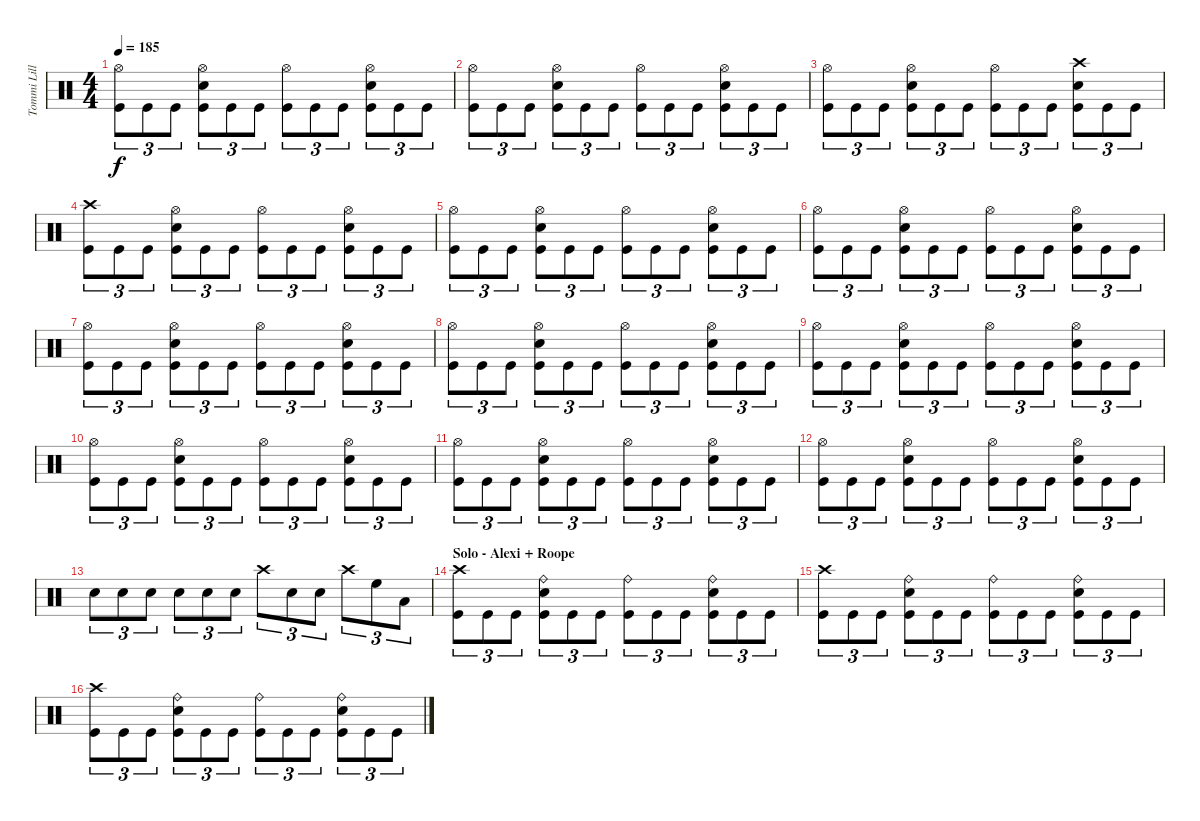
\track ("Tommi Lillman" "Tommi Lill") {instrument percussion}
\staff {score}
\articulation defaults
\ts (4 4)
\tempo 185
\clef neutral
\ks c
("Hi-Hat (open)" "Kick (hit)").8{tu (3 2) dy f} "Kick (hit)".8{tu (3 2)} "Kick (hit)".8{tu (3 2)} ("Hi-Hat (open)" "Snare (hit) 2" "Kick (hit)").8{tu (3 2)} "Kick (hit)".8{tu (3 2)} "Kick (hit)".8{tu (3 2)} ("Hi-Hat (open)" "Kick (hit)").8{tu (3 2)} "Kick (hit)".8{tu (3 2)} "Kick (hit)".8{tu (3 2)} ("Hi-Hat (open)" "Snare (hit) 2" "Kick (hit)").8{tu (3 2)} "Kick (hit)".8{tu (3 2)} "Kick (hit)".8{tu (3 2)} |
("Hi-Hat (open)" "Kick (hit)").8{tu (3 2)} "Kick (hit)".8{tu (3 2)} "Kick (hit)".8{tu (3 2)} ("Hi-Hat (open)" "Snare (hit) 2" "Kick (hit)").8{tu (3 2)} "Kick (hit)".8{tu (3 2)} "Kick (hit)".8{tu (3 2)} ("Hi-Hat (open)" "Kick (hit)").8{tu (3 2)} "Kick (hit)".8{tu (3 2)} "Kick (hit)".8{tu (3 2)} ("Hi-Hat (open)" "Snare (hit) 2" "Kick (hit)").8{tu (3 2)} "Kick (hit)".8{tu (3 2)} "Kick (hit)".8{tu (3 2)} |
("Hi-Hat (open)" "Kick (hit)").8{tu (3 2)} "Kick (hit)".8{tu (3 2)} "Kick (hit)".8{tu (3 2)} ("Hi-Hat (open)" "Snare (hit) 2" "Kick (hit)").8{tu (3 2)} "Kick (hit)".8{tu (3 2)} "Kick (hit)".8{tu (3 2)} ("Hi-Hat (open)" "Kick (hit)").8{tu (3 2)} "Kick (hit)".8{tu (3 2)} "Kick (hit)".8{tu (3 2)} ("Crash high (hit)" "Snare (hit) 2" "Kick (hit)").8{tu (3 2)} "Kick (hit)".8{tu (3 2)} "Kick (hit)".8{tu (3 2)} |
("Crash high (hit)" "Kick (hit)").8{tu (3 2)} "Kick (hit)".8{tu (3 2)} "Kick (hit)".8{tu (3 2)} ("Hi-Hat (open)" "Snare (hit) 2" "Kick (hit)").8{tu (3 2)} "Kick (hit)".8{tu (3 2)} "Kick (hit)".8{tu (3 2)} ("Hi-Hat (open)" "Kick (hit)").8{tu (3 2)} "Kick (hit)".8{tu (3 2)} "Kick (hit)".8{tu (3 2)} ("Hi-Hat (open)" "Snare (hit) 2" "Kick (hit)").8{tu (3 2)} "Kick (hit)".8{tu (3 2)} "Kick (hit)".8{tu (3 2)} |
("Hi-Hat (open)" "Kick (hit)").8{tu (3 2)} "Kick (hit)".8{tu (3 2)} "Kick (hit)".8{tu (3 2)} ("Hi-Hat (open)" "Snare (hit) 2" "Kick (hit)").8{tu (3 2)} "Kick (hit)".8{tu (3 2)} "Kick (hit)".8{tu (3 2)} ("Hi-Hat (open)" "Kick (hit)").8{tu (3 2)} "Kick (hit)".8{tu (3 2)} "Kick (hit)".8{tu (3 2)} ("Hi-Hat (open)" "Snare (hit) 2" "Kick (hit)").8{tu (3 2)} "Kick (hit)".8{tu (3 2)} "Kick (hit)".8{tu (3 2)} |
("Hi-Hat (open)" "Kick (hit)").8{tu (3 2)} "Kick (hit)".8{tu (3 2)} "Kick (hit)".8{tu (3 2)} ("Hi-Hat (open)" "Snare (hit) 2" "Kick (hit)").8{tu (3 2)} "Kick (hit)".8{tu (3 2)} "Kick (hit)".8{tu (3 2)} ("Hi-Hat (open)" "Kick (hit)").8{tu (3 2)} "Kick (hit)".8{tu (3 2)} "Kick (hit)".8{tu (3 2)} ("Hi-Hat (open)" "Snare (hit) 2" "Kick (hit)").8{tu (3 2)} "Kick (hit)".8{tu (3 2)} "Kick (hit)".8{tu (3 2)} |
("Hi-Hat (open)" "Kick (hit)").8{tu (3 2)} "Kick (hit)".8{tu (3 2)} "Kick (hit)".8{tu (3 2)} ("Hi-Hat (open)" "Snare (hit) 2" "Kick (hit)").8{tu (3 2)} "Kick (hit)".8{tu (3 2)} "Kick (hit)".8{tu (3 2)} ("Hi-Hat (open)" "Kick (hit)").8{tu (3 2)} "Kick (hit)".8{tu (3 2)} "Kick (hit)".8{tu (3 2)} ("Hi-Hat (open)" "Snare (hit) 2" "Kick (hit)").8{tu (3 2)} "Kick (hit)".8{tu (3 2)} "Kick (hit)".8{tu (3 2)} |
("Hi-Hat (open)" "Kick (hit)").8{tu (3 2)} "Kick (hit)".8{tu (3 2)} "Kick (hit)".8{tu (3 2)} ("Hi-Hat (open)" "Snare (hit) 2" "Kick (hit)").8{tu (3 2)} "Kick (hit)".8{tu (3 2)} "Kick (hit)".8{tu (3 2)} ("Hi-Hat (open)" "Kick (hit)").8{tu (3 2)} "Kick (hit)".8{tu (3 2)} "Kick (hit)".8{tu (3 2)} ("Hi-Hat (open)" "Snare (hit) 2" "Kick (hit)").8{tu (3 2)} "Kick (hit)".8{tu (3 2)} "Kick (hit)".8{tu (3 2)} |
("Hi-Hat (open)" "Kick (hit)").8{tu (3 2)} "Kick (hit)".8{tu (3 2)} "Kick (hit)".8{tu (3 2)} ("Hi-Hat (open)" "Snare (hit) 2" "Kick (hit)").8{tu (3 2)} "Kick (hit)".8{tu (3 2)} "Kick (hit)".8{tu (3 2)} ("Hi-Hat (open)" "Kick (hit)").8{tu (3 2)} "Kick (hit)".8{tu (3 2)} "Kick (hit)".8{tu (3 2)} ("Hi-Hat (open)" "Snare (hit) 2" "Kick (hit)").8{tu (3 2)} "Kick (hit)".8{tu (3 2)} "Kick (hit)".8{tu (3 2)} |
("Hi-Hat (open)" "Kick (hit)").8{tu (3 2)} "Kick (hit)".8{tu (3 2)} "Kick (hit)".8{tu (3 2)} ("Hi-Hat (open)" "Snare (hit) 2" "Kick (hit)").8{tu (3 2)} "Kick (hit)".8{tu (3 2)} "Kick (hit)".8{tu (3 2)} ("Hi-Hat (open)" "Kick (hit)").8{tu (3 2)} "Kick (hit)".8{tu (3 2)} "Kick (hit)".8{tu (3 2)} ("Hi-Hat (open)" "Snare (hit) 2" "Kick (hit)").8{tu (3 2)} "Kick (hit)".8{tu (3 2)} "Kick (hit)".8{tu (3 2)} |
("Hi-Hat (open)" "Kick (hit)").8{tu (3 2)} "Kick (hit)".8{tu (3 2)} "Kick (hit)".8{tu (3 2)} ("Hi-Hat (open)" "Snare (hit) 2" "Kick (hit)").8{tu (3 2)} "Kick (hit)".8{tu (3 2)} "Kick (hit)".8{tu (3 2)} ("Hi-Hat (open)" "Kick (hit)").8{tu (3 2)} "Kick (hit)".8{tu (3 2)} "Kick (hit)".8{tu (3 2)} ("Hi-Hat (open)" "Snare (hit) 2" "Kick (hit)").8{tu (3 2)} "Kick (hit)".8{tu (3 2)} "Kick (hit)".8{tu (3 2)} |
("Hi-Hat (open)" "Kick (hit)").8{tu (3 2)} "Kick (hit)".8{tu (3 2)} "Kick (hit)".8{tu (3 2)} ("Hi-Hat (open)" "Snare (hit) 2" "Kick (hit)").8{tu (3 2)} "Kick (hit)".8{tu (3 2)} "Kick (hit)".8{tu (3 2)} ("Hi-Hat (open)" "Kick (hit)").8{tu (3 2)} "Kick (hit)".8{tu (3 2)} "Kick (hit)".8{tu (3 2)} ("Hi-Hat (open)" "Snare (hit) 2" "Kick (hit)").8{tu (3 2)} "Kick (hit)".8{tu (3 2)} "Kick (hit)".8{tu (3 2)} |
"Snare (hit) 2".8{tu (3 2)} "Snare (hit) 2".8{tu (3 2)} "Snare (hit) 2".8{tu (3 2)} "Snare (hit) 2".8{tu (3 2)} "Snare (hit) 2".8{tu (3 2)} "Snare (hit) 2".8{tu (3 2)} "Crash high (hit)".8{tu (3 2)} "Snare (hit) 2".8{tu (3 2)} "Snare (hit) 2".8{tu (3 2)} "Crash high (hit)".8{tu (3 2)} "High Floor Tom (hit)".8{tu (3 2)} "Low Tom (hit)".8{tu (3 2)} |
\section ("" "Solo - Alexi + Roope")
("Crash high (hit)" "Kick (hit)").8{tu (3 2)} "Kick (hit)".8{tu (3 2)} "Kick (hit)".8{tu (3 2)} ("Ride (bell)" "Snare (hit) 2" "Kick (hit)").8{tu (3 2)} "Kick (hit)".8{tu (3 2)} "Kick (hit)".8{tu (3 2)} ("Ride (bell)" "Kick (hit)").8{tu (3 2)} "Kick (hit)".8{tu (3 2)} "Kick (hit)".8{tu (3 2)} ("Ride (bell)" "Snare (hit) 2" "Kick (hit)").8{tu (3 2)} "Kick (hit)".8{tu (3 2)} "Kick (hit)".8{tu (3 2)} |
("Crash high (hit)" "Kick (hit)").8{tu (3 2)} "Kick (hit)".8{tu (3 2)} "Kick (hit)".8{tu (3 2)} ("Ride (bell)" "Snare (hit) 2" "Kick (hit)").8{tu (3 2)} "Kick (hit)".8{tu (3 2)} "Kick (hit)".8{tu (3 2)} ("Ride (bell)" "Kick (hit)").8{tu (3 2)} "Kick (hit)".8{tu (3 2)} "Kick (hit)".8{tu (3 2)} ("Ride (bell)" "Snare (hit) 2" "Kick (hit)").8{tu (3 2)} "Kick (hit)".8{tu (3 2)} "Kick (hit)".8{tu (3 2)} |
("Crash high (hit)" "Kick (hit)").8{tu (3 2)} "Kick (hit)".8{tu (3 2)} "Kick (hit)".8{tu (3 2)} ("Ride (bell)" "Snare (hit) 2" "Kick (hit)").8{tu (3 2)} "Kick (hit)".8{tu (3 2)} "Kick (hit)".8{tu (3 2)} ("Ride (bell)" "Kick (hit)").8{tu (3 2)} "Kick (hit)".8{tu (3 2)} "Kick (hit)".8{tu (3 2)} ("Ride (bell)" "Snare (hit) 2" "Kick (hit)").8{tu (3 2)} "Kick (hit)".8{tu (3 2)} "Kick (hit)".8{tu (3 2)}
